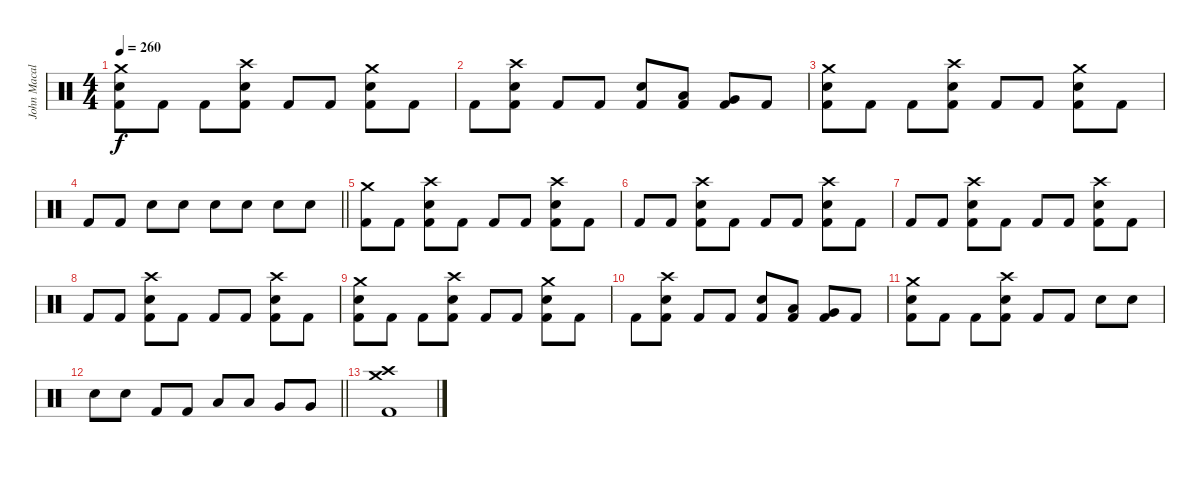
\track ("John Macaluso" "John Macal") {instrument percussion}
\staff {score}
\articulation defaults
\ts (4 4)
\tempo 260
\clef neutral
\ks c
("Crash medium (hit)" "Snare (hit) 2" "Kick (hit) 2").8{dy f} "Kick (hit) 2".8 "Kick (hit) 2".8 ("Crash high (hit)" "Snare (hit) 2" "Kick (hit) 2").8 "Kick (hit) 2".8 "Kick (hit) 2".8 ("Crash medium (hit)" "Snare (hit) 2" "Kick (hit) 2").8 "Kick (hit) 2".8 |
"Kick (hit) 2".8 ("Crash high (hit)" "Snare (hit) 2" "Kick (hit) 2").8 "Kick (hit) 2".8 "Kick (hit) 2".8 ("Snare (hit) 2" "Kick (hit) 2").8 ("Low Tom (hit)" "Kick (hit) 2").8 ("Very Low Tom (hit)" "Kick (hit) 2").8 "Kick (hit) 2".8 |
("Crash medium (hit)" "Snare (hit) 2" "Kick (hit) 2").8 "Kick (hit) 2".8 "Kick (hit) 2".8 ("Crash high (hit)" "Snare (hit) 2" "Kick (hit) 2").8 "Kick (hit) 2".8 "Kick (hit) 2".8 ("Crash medium (hit)" "Snare (hit) 2" "Kick (hit) 2").8 "Kick (hit) 2".8 |
\barLineRight lightlight "Kick (hit) 2".8 "Kick (hit) 2".8 "Snare (hit) 2".8 "Snare (hit) 2".8 "Snare (hit) 2".8 "Snare (hit) 2".8 "Snare (hit) 2".8 "Snare (hit) 2".8
|
("Crash medium (hit)" "Kick (hit) 2").8 "Kick (hit) 2".8 ("Crash high (hit)" "Snare (hit) 2" "Kick (hit) 2").8 "Kick (hit) 2".8 "Kick (hit) 2".8 "Kick (hit) 2".8 ("Crash high (hit)" "Snare (hit) 2" "Kick (hit) 2").8 "Kick (hit) 2".8 |
"Kick (hit) 2".8 "Kick (hit) 2".8 ("Crash high (hit)" "Snare (hit) 2" "Kick (hit) 2").8 "Kick (hit) 2".8 "Kick (hit) 2".8 "Kick (hit) 2".8 ("Crash high (hit)" "Snare (hit) 2" "Kick (hit) 2").8 "Kick (hit) 2".8 |
"Kick (hit) 2".8 "Kick (hit) 2".8 ("Crash high (hit)" "Snare (hit) 2" "Kick (hit) 2").8 "Kick (hit) 2".8 "Kick (hit) 2".8 "Kick (hit) 2".8 ("Crash high (hit)" "Snare (hit) 2" "Kick (hit) 2").8 "Kick (hit) 2".8 |
"Kick (hit) 2".8 "Kick (hit) 2".8 ("Crash high (hit)" "Snare (hit) 2" "Kick (hit) 2").8 "Kick (hit) 2".8 "Kick (hit) 2".8 "Kick (hit) 2".8 ("Crash high (hit)" "Snare (hit) 2" "Kick (hit) 2").8 "Kick (hit) 2".8 |
("Crash medium (hit)" "Snare (hit) 2" "Kick (hit) 2").8 "Kick (hit) 2".8 "Kick (hit) 2".8 ("Crash high (hit)" "Snare (hit) 2" "Kick (hit) 2").8 "Kick (hit) 2".8 "Kick (hit) 2".8 ("Crash medium (hit)" "Snare (hit) 2" "Kick (hit) 2").8 "Kick (hit) 2".8 |
"Kick (hit) 2".8 ("Crash high (hit)" "Snare (hit) 2" "Kick (hit) 2").8 "Kick (hit) 2".8 "Kick (hit) 2".8 ("Snare (hit) 2" "Kick (hit) 2").8 ("Low Tom (hit)" "Kick (hit) 2").8 ("Very Low Tom (hit)" "Kick (hit) 2").8 "Kick (hit) 2".8 |
("Crash medium (hit)" "Snare (hit) 2" "Kick (hit) 2").8 "Kick (hit) 2".8 "Kick (hit) 2".8 ("Crash high (hit)" "Snare (hit) 2" "Kick (hit) 2").8 "Kick (hit) 2".8 "Kick (hit) 2".8 "Snare (hit) 2".8 "Snare (hit) 2".8 |
\barLineRight lightlight "Snare (hit) 2".8 "Snare (hit) 2".8 "Kick (hit) 2".8 "Kick (hit) 2".8 "Low Tom (hit)".8 "Low Tom (hit)".8 "Very Low Tom (hit)".8 "Very Low Tom (hit)".8
|
("Crash medium (hit)" "Crash high (hit)" "Kick (hit) 2").1
